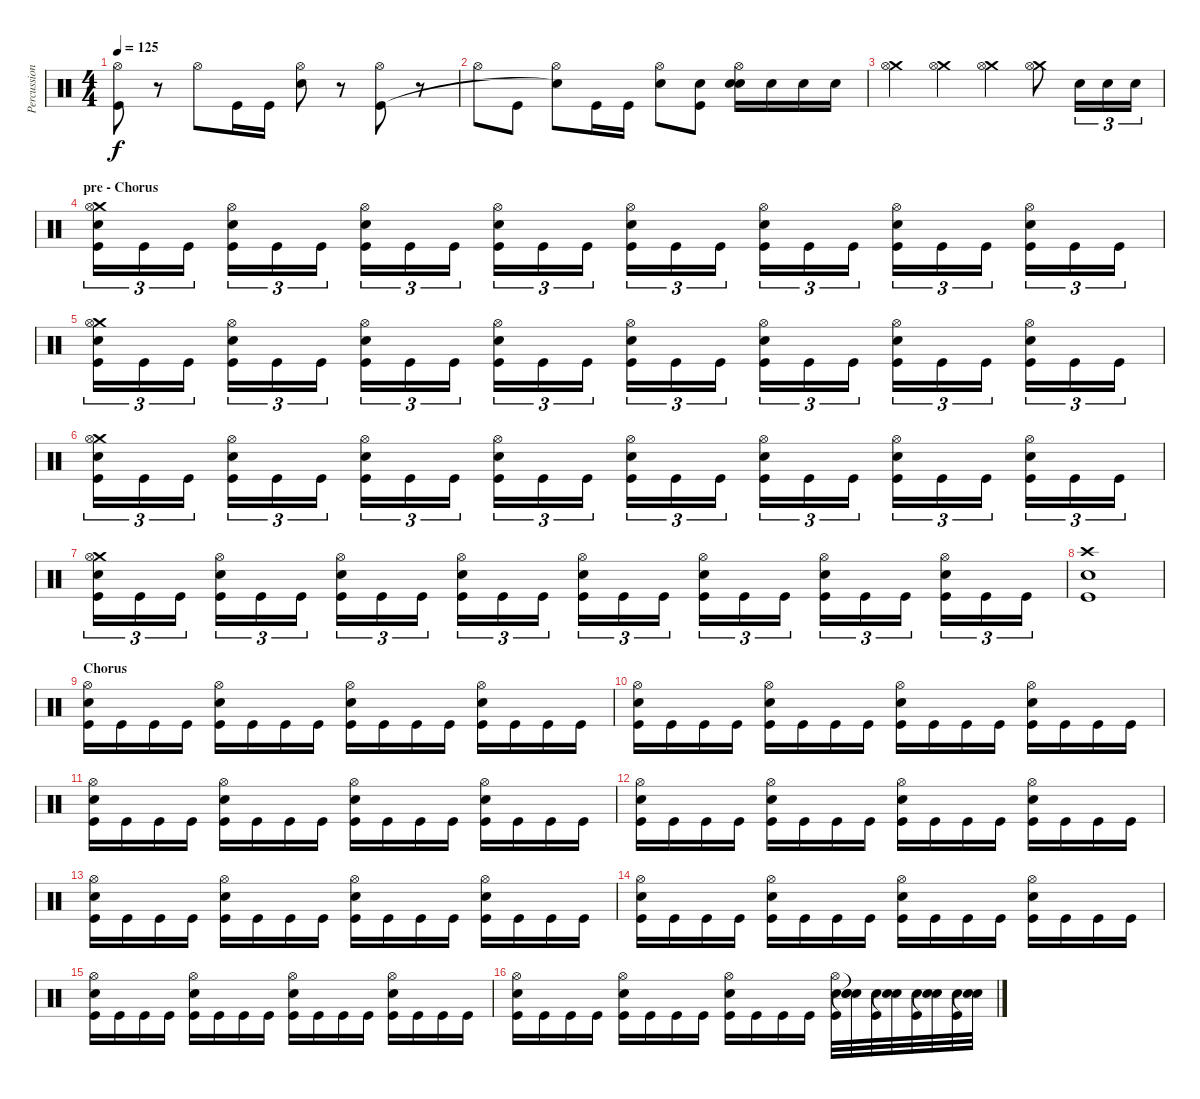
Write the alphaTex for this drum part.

\track ("Percussion" "Percussion") {instrument percussion}
\staff {score}
\articulation defaults
\ts (4 4)
\tempo 125
\clef neutral
\ks c
("Hi-Hat (open)" "Kick (hit)").8{dy f} r.8 "Hi-Hat (open)".8 "Kick (hit)".16 "Kick (hit)".16 ("Hi-Hat (open)" "Electric Snare (hit)").8 r.8 ("Hi-Hat (open)" "Kick (hit)").8 r.8 |
"Hi-Hat (open)".8 "Kick (hit)".8 ("Hi-Hat (open)" "Snare (hit)"{t}).8 "Kick (hit)".16 "Kick (hit)".16 ("Hi-Hat (open)" "Electric Snare (hit)").8 ("Electric Snare (hit)" "Kick (hit)").8 ("Electric Snare (hit)" "Hi-Hat (open)" "Electric Snare (hit)").16 "Electric Snare (hit)".16 "Electric Snare (hit)".16 "Electric Snare (hit)".16 |
("Crash medium (hit)" "Hi-Hat (open)").4 ("Crash medium (hit)" "Hi-Hat (open)").4 ("Crash medium (hit)" "Hi-Hat (open)").4 ("Crash medium (hit)" "Hi-Hat (open)").8 "Electric Snare (hit)".16{tu (3 2)} "Electric Snare (hit)".16{tu (3 2)} "Electric Snare (hit)".16{tu (3 2)} |
\section ("" "pre - Chorus")
("Crash medium (hit)" "Electric Snare (hit)" "Hi-Hat (open)" "Kick (hit)").16{tu (3 2)} "Kick (hit)".16{tu (3 2)} "Kick (hit)".16{tu (3 2)} ("Electric Snare (hit)" "Hi-Hat (open)" "Kick (hit)").16{tu (3 2)} "Kick (hit)".16{tu (3 2)} "Kick (hit)".16{tu (3 2)} ("Electric Snare (hit)" "Hi-Hat (open)" "Kick (hit)").16{tu (3 2)} "Kick (hit)".16{tu (3 2)} "Kick (hit)".16{tu (3 2)} ("Electric Snare (hit)" "Hi-Hat (open)" "Kick (hit)").16{tu (3 2)} "Kick (hit)".16{tu (3 2)} "Kick (hit)".16{tu (3 2)} ("Electric Snare (hit)" "Hi-Hat (open)" "Kick (hit)").16{tu (3 2)} "Kick (hit)".16{tu (3 2)} "Kick (hit)".16{tu (3 2)} ("Electric Snare (hit)" "Hi-Hat (open)" "Kick (hit)").16{tu (3 2)} "Kick (hit)".16{tu (3 2)} "Kick (hit)".16{tu (3 2)} ("Electric Snare (hit)" "Hi-Hat (open)" "Kick (hit)").16{tu (3 2)} "Kick (hit)".16{tu (3 2)} "Kick (hit)".16{tu (3 2)} ("Electric Snare (hit)" "Hi-Hat (open)" "Kick (hit)").16{tu (3 2)} "Kick (hit)".16{tu (3 2)} "Kick (hit)".16{tu (3 2)} |
("Crash medium (hit)" "Electric Snare (hit)" "Hi-Hat (open)" "Kick (hit)").16{tu (3 2)} "Kick (hit)".16{tu (3 2)} "Kick (hit)".16{tu (3 2)} ("Electric Snare (hit)" "Hi-Hat (open)" "Kick (hit)").16{tu (3 2)} "Kick (hit)".16{tu (3 2)} "Kick (hit)".16{tu (3 2)} ("Electric Snare (hit)" "Hi-Hat (open)" "Kick (hit)").16{tu (3 2)} "Kick (hit)".16{tu (3 2)} "Kick (hit)".16{tu (3 2)} ("Electric Snare (hit)" "Hi-Hat (open)" "Kick (hit)").16{tu (3 2)} "Kick (hit)".16{tu (3 2)} "Kick (hit)".16{tu (3 2)} ("Electric Snare (hit)" "Hi-Hat (open)" "Kick (hit)").16{tu (3 2)} "Kick (hit)".16{tu (3 2)} "Kick (hit)".16{tu (3 2)} ("Electric Snare (hit)" "Hi-Hat (open)" "Kick (hit)").16{tu (3 2)} "Kick (hit)".16{tu (3 2)} "Kick (hit)".16{tu (3 2)} ("Electric Snare (hit)" "Hi-Hat (open)" "Kick (hit)").16{tu (3 2)} "Kick (hit)".16{tu (3 2)} "Kick (hit)".16{tu (3 2)} ("Electric Snare (hit)" "Hi-Hat (open)" "Kick (hit)").16{tu (3 2)} "Kick (hit)".16{tu (3 2)} "Kick (hit)".16{tu (3 2)} |
("Crash medium (hit)" "Electric Snare (hit)" "Hi-Hat (open)" "Kick (hit)").16{tu (3 2)} "Kick (hit)".16{tu (3 2)} "Kick (hit)".16{tu (3 2)} ("Electric Snare (hit)" "Hi-Hat (open)" "Kick (hit)").16{tu (3 2)} "Kick (hit)".16{tu (3 2)} "Kick (hit)".16{tu (3 2)} ("Electric Snare (hit)" "Hi-Hat (open)" "Kick (hit)").16{tu (3 2)} "Kick (hit)".16{tu (3 2)} "Kick (hit)".16{tu (3 2)} ("Electric Snare (hit)" "Hi-Hat (open)" "Kick (hit)").16{tu (3 2)} "Kick (hit)".16{tu (3 2)} "Kick (hit)".16{tu (3 2)} ("Electric Snare (hit)" "Hi-Hat (open)" "Kick (hit)").16{tu (3 2)} "Kick (hit)".16{tu (3 2)} "Kick (hit)".16{tu (3 2)} ("Electric Snare (hit)" "Hi-Hat (open)" "Kick (hit)").16{tu (3 2)} "Kick (hit)".16{tu (3 2)} "Kick (hit)".16{tu (3 2)} ("Electric Snare (hit)" "Hi-Hat (open)" "Kick (hit)").16{tu (3 2)} "Kick (hit)".16{tu (3 2)} "Kick (hit)".16{tu (3 2)} ("Electric Snare (hit)" "Hi-Hat (open)" "Kick (hit)").16{tu (3 2)} "Kick (hit)".16{tu (3 2)} "Kick (hit)".16{tu (3 2)} |
("Crash medium (hit)" "Electric Snare (hit)" "Hi-Hat (open)" "Kick (hit)").16{tu (3 2)} "Kick (hit)".16{tu (3 2)} "Kick (hit)".16{tu (3 2)} ("Electric Snare (hit)" "Hi-Hat (open)" "Kick (hit)").16{tu (3 2)} "Kick (hit)".16{tu (3 2)} "Kick (hit)".16{tu (3 2)} ("Electric Snare (hit)" "Hi-Hat (open)" "Kick (hit)").16{tu (3 2)} "Kick (hit)".16{tu (3 2)} "Kick (hit)".16{tu (3 2)} ("Electric Snare (hit)" "Hi-Hat (open)" "Kick (hit)").16{tu (3 2)} "Kick (hit)".16{tu (3 2)} "Kick (hit)".16{tu (3 2)} ("Electric Snare (hit)" "Hi-Hat (open)" "Kick (hit)").16{tu (3 2)} "Kick (hit)".16{tu (3 2)} "Kick (hit)".16{tu (3 2)} ("Electric Snare (hit)" "Hi-Hat (open)" "Kick (hit)").16{tu (3 2)} "Kick (hit)".16{tu (3 2)} "Kick (hit)".16{tu (3 2)} ("Electric Snare (hit)" "Hi-Hat (open)" "Kick (hit)").16{tu (3 2)} "Kick (hit)".16{tu (3 2)} "Kick (hit)".16{tu (3 2)} ("Electric Snare (hit)" "Hi-Hat (open)" "Kick (hit)").16{tu (3 2)} "Kick (hit)".16{tu (3 2)} "Kick (hit)".16{tu (3 2)} |
("Crash high (hit)" "Electric Snare (hit)" "Kick (hit)").1 |
\section ("" "Chorus")
("Kick (hit)" "Electric Snare (hit)" "Hi-Hat (open)").16 "Kick (hit)".16 "Kick (hit)".16 "Kick (hit)".16 ("Kick (hit)" "Electric Snare (hit)" "Hi-Hat (open)").16 "Kick (hit)".16 "Kick (hit)".16 "Kick (hit)".16 ("Kick (hit)" "Electric Snare (hit)" "Hi-Hat (open)").16 "Kick (hit)".16 "Kick (hit)".16 "Kick (hit)".16 ("Kick (hit)" "Electric Snare (hit)" "Hi-Hat (open)").16 "Kick (hit)".16 "Kick (hit)".16 "Kick (hit)".16 |
("Kick (hit)" "Electric Snare (hit)" "Hi-Hat (open)").16 "Kick (hit)".16 "Kick (hit)".16 "Kick (hit)".16 ("Kick (hit)" "Electric Snare (hit)" "Hi-Hat (open)").16 "Kick (hit)".16 "Kick (hit)".16 "Kick (hit)".16 ("Kick (hit)" "Electric Snare (hit)" "Hi-Hat (open)").16 "Kick (hit)".16 "Kick (hit)".16 "Kick (hit)".16 ("Kick (hit)" "Electric Snare (hit)" "Hi-Hat (open)").16 "Kick (hit)".16 "Kick (hit)".16 "Kick (hit)".16 |
("Kick (hit)" "Electric Snare (hit)" "Hi-Hat (open)").16 "Kick (hit)".16 "Kick (hit)".16 "Kick (hit)".16 ("Kick (hit)" "Electric Snare (hit)" "Hi-Hat (open)").16 "Kick (hit)".16 "Kick (hit)".16 "Kick (hit)".16 ("Kick (hit)" "Electric Snare (hit)" "Hi-Hat (open)").16 "Kick (hit)".16 "Kick (hit)".16 "Kick (hit)".16 ("Kick (hit)" "Electric Snare (hit)" "Hi-Hat (open)").16 "Kick (hit)".16 "Kick (hit)".16 "Kick (hit)".16 |
("Kick (hit)" "Electric Snare (hit)" "Hi-Hat (open)").16 "Kick (hit)".16 "Kick (hit)".16 "Kick (hit)".16 ("Kick (hit)" "Electric Snare (hit)" "Hi-Hat (open)").16 "Kick (hit)".16 "Kick (hit)".16 "Kick (hit)".16 ("Kick (hit)" "Electric Snare (hit)" "Hi-Hat (open)").16 "Kick (hit)".16 "Kick (hit)".16 "Kick (hit)".16 ("Kick (hit)" "Electric Snare (hit)" "Hi-Hat (open)").16 "Kick (hit)".16 "Kick (hit)".16 "Kick (hit)".16 |
("Kick (hit)" "Electric Snare (hit)" "Hi-Hat (open)").16 "Kick (hit)".16 "Kick (hit)".16 "Kick (hit)".16 ("Kick (hit)" "Electric Snare (hit)" "Hi-Hat (open)").16 "Kick (hit)".16 "Kick (hit)".16 "Kick (hit)".16 ("Kick (hit)" "Electric Snare (hit)" "Hi-Hat (open)").16 "Kick (hit)".16 "Kick (hit)".16 "Kick (hit)".16 ("Kick (hit)" "Electric Snare (hit)" "Hi-Hat (open)").16 "Kick (hit)".16 "Kick (hit)".16 "Kick (hit)".16 |
("Kick (hit)" "Electric Snare (hit)" "Hi-Hat (open)").16 "Kick (hit)".16 "Kick (hit)".16 "Kick (hit)".16 ("Kick (hit)" "Electric Snare (hit)" "Hi-Hat (open)").16 "Kick (hit)".16 "Kick (hit)".16 "Kick (hit)".16 ("Kick (hit)" "Electric Snare (hit)" "Hi-Hat (open)").16 "Kick (hit)".16 "Kick (hit)".16 "Kick (hit)".16 ("Kick (hit)" "Electric Snare (hit)" "Hi-Hat (open)").16 "Kick (hit)".16 "Kick (hit)".16 "Kick (hit)".16 |
("Kick (hit)" "Electric Snare (hit)" "Hi-Hat (open)").16 "Kick (hit)".16 "Kick (hit)".16 "Kick (hit)".16 ("Kick (hit)" "Electric Snare (hit)" "Hi-Hat (open)").16 "Kick (hit)".16 "Kick (hit)".16 "Kick (hit)".16 ("Kick (hit)" "Electric Snare (hit)" "Hi-Hat (open)").16 "Kick (hit)".16 "Kick (hit)".16 "Kick (hit)".16 ("Kick (hit)" "Electric Snare (hit)" "Hi-Hat (open)").16 "Kick (hit)".16 "Kick (hit)".16 "Kick (hit)".16 |
("Kick (hit)" "Electric Snare (hit)" "Hi-Hat (open)").16 "Kick (hit)".16 "Kick (hit)".16 "Kick (hit)".16 ("Kick (hit)" "Electric Snare (hit)" "Hi-Hat (open)").16 "Kick (hit)".16 "Kick (hit)".16 "Kick (hit)".16 ("Kick (hit)" "Electric Snare (hit)" "Hi-Hat (open)").16 "Kick (hit)".16 "Kick (hit)".16 "Kick (hit)".16 ("Kick (hit)" "Electric Snare (hit)" "Hi-Hat (open)").32 ("Snare (hit)"{t} "Electric Snare (hit)" "Snare (hit)"{t}).32 ("Kick (hit)" "Electric Snare (hit)").32 ("Snare (hit)"{t} "Electric Snare (hit)").32 ("Kick (hit)" "Electric Snare (hit)").32 ("Snare (hit)"{t} "Electric Snare (hit)").32 ("Kick (hit)" "Electric Snare (hit)").32 ("Snare (hit)"{t} "Electric Snare (hit)").32
